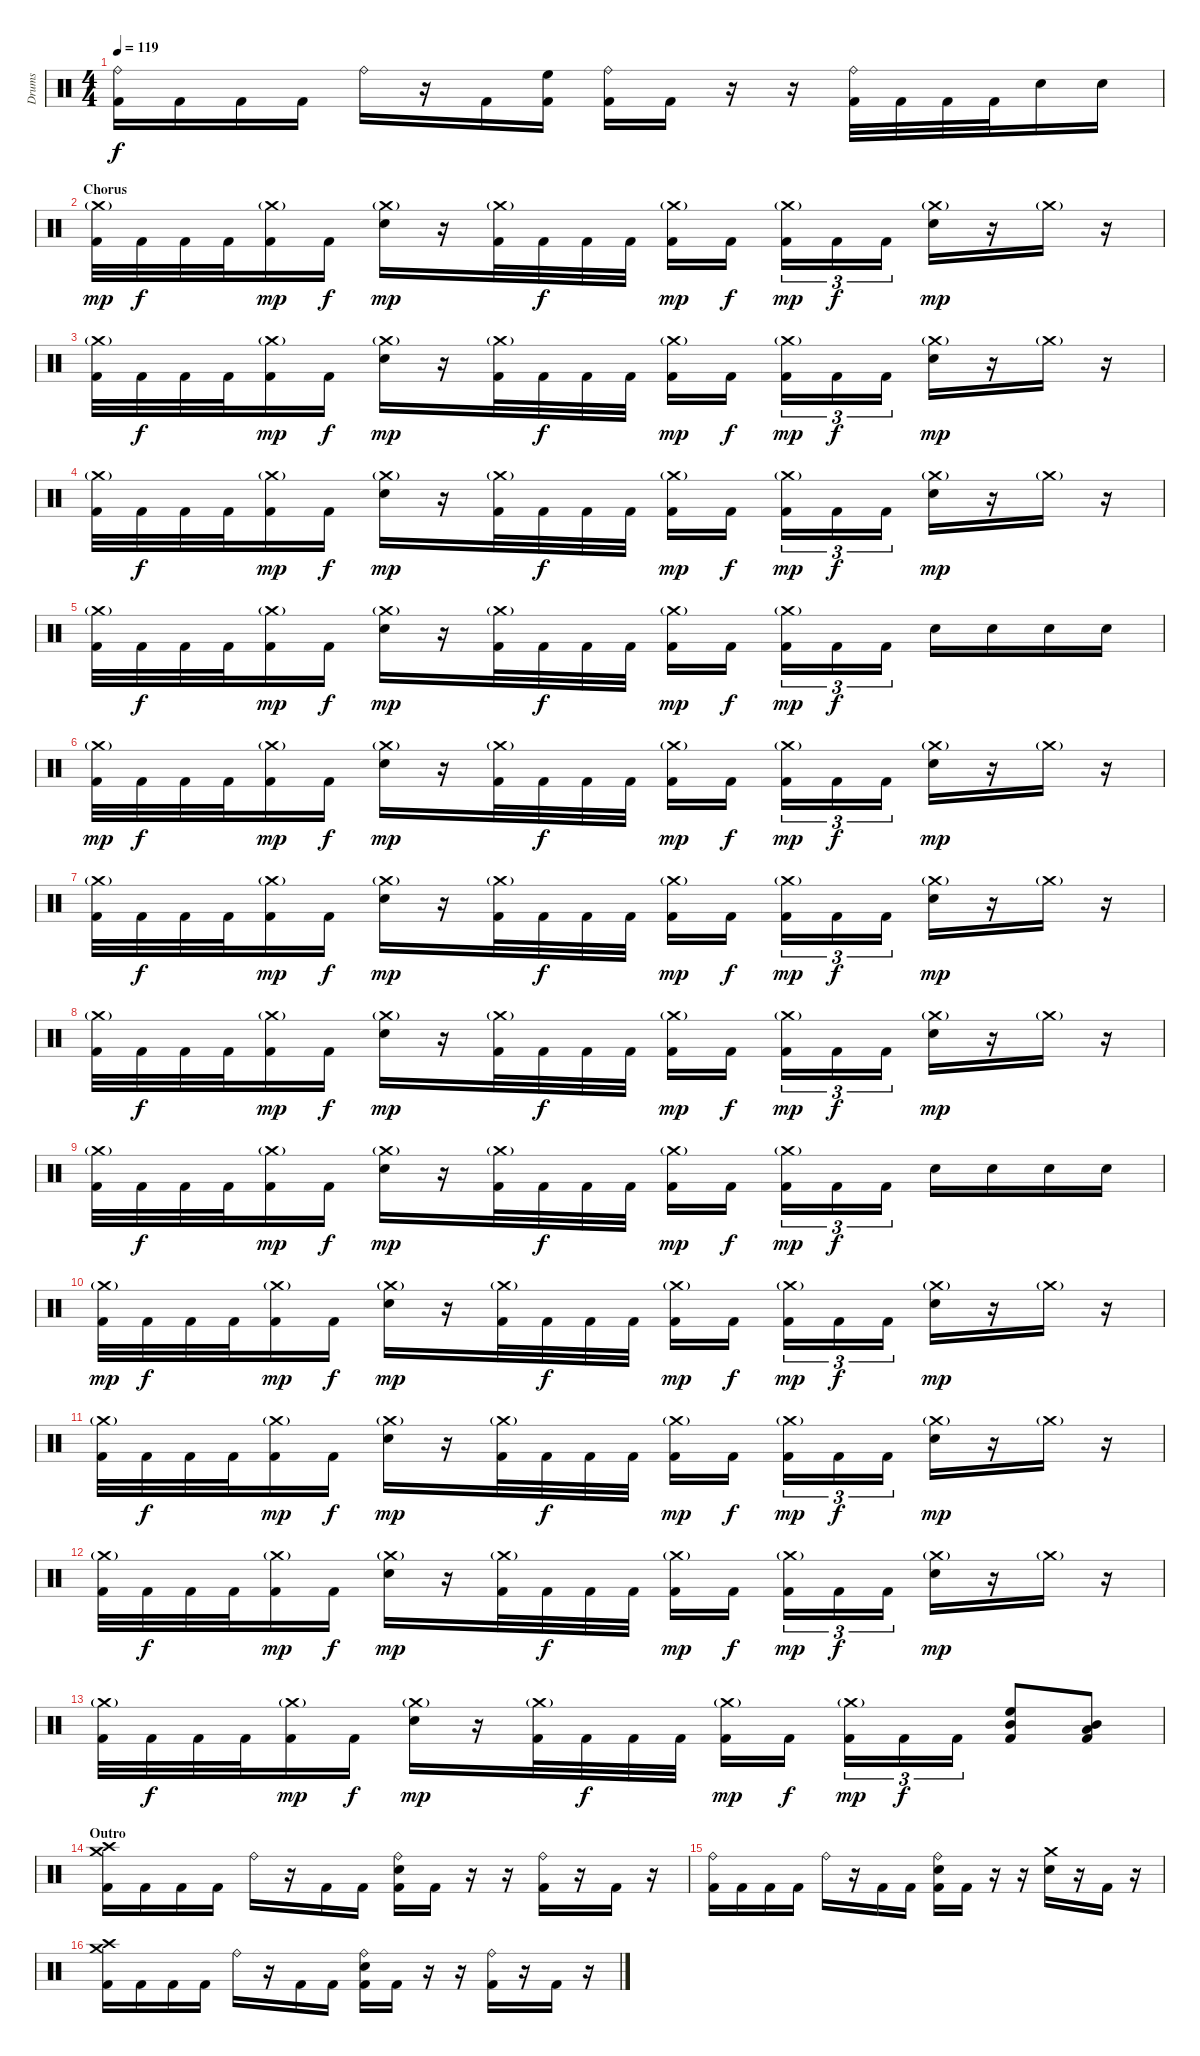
\track ("Drums" "Drums") {instrument percussion}
\staff {score}
\articulation defaults
\ts (4 4)
\tempo 119
\clef neutral
\ks c
("Ride (bell)" "Kick (hit) 2").16{dy f} "Kick (hit) 2".16 "Kick (hit) 2".16 "Kick (hit) 2".16 "Ride (bell)".16 r.16 "Kick (hit) 2".16 ("High Floor Tom (hit)" "Kick (hit) 2").16 ("Ride (bell)" "Kick (hit) 2").16 "Kick (hit) 2".16 r.16 r.16 ("Ride (bell)" "Kick (hit) 2").32 "Kick (hit) 2".32 "Kick (hit) 2".32 "Kick (hit) 2".32 "Electric Snare (hit)".16 "Electric Snare (hit)".16 |
\section ("" "Chorus")
("Crash medium (hit)"{g} "Kick (hit) 2").32{dy mp} "Kick (hit) 2".32{dy f} "Kick (hit) 2".32 "Kick (hit) 2".32 ("Crash medium (hit)"{g} "Kick (hit) 2").16{dy mp} "Kick (hit) 2".16{dy f} ("Crash medium (hit)"{g} "Electric Snare (hit)").16{dy mp} r.16 ("Crash medium (hit)"{g} "Kick (hit) 2").32 "Kick (hit) 2".32{dy f} "Kick (hit) 2".32 "Kick (hit) 2".32 ("Crash medium (hit)"{g} "Kick (hit) 2").16{dy mp} "Kick (hit) 2".16{dy f} ("Crash medium (hit)"{g} "Kick (hit) 2").16{tu (3 2) dy mp} "Kick (hit) 2".16{tu (3 2) dy f} "Kick (hit) 2".16{tu (3 2)} ("Crash medium (hit)"{g} "Electric Snare (hit)").16{dy mp} r.16 "Crash medium (hit)"{g}.16 r.16 |
("Crash medium (hit)"{g} "Kick (hit) 2").32 "Kick (hit) 2".32{dy f} "Kick (hit) 2".32 "Kick (hit) 2".32 ("Crash medium (hit)"{g} "Kick (hit) 2").16{dy mp} "Kick (hit) 2".16{dy f} ("Crash medium (hit)"{g} "Electric Snare (hit)").16{dy mp} r.16 ("Crash medium (hit)"{g} "Kick (hit) 2").32 "Kick (hit) 2".32{dy f} "Kick (hit) 2".32 "Kick (hit) 2".32 ("Crash medium (hit)"{g} "Kick (hit) 2").16{dy mp} "Kick (hit) 2".16{dy f} ("Crash medium (hit)"{g} "Kick (hit) 2").16{tu (3 2) dy mp} "Kick (hit) 2".16{tu (3 2) dy f} "Kick (hit) 2".16{tu (3 2)} ("Crash medium (hit)"{g} "Electric Snare (hit)").16{dy mp} r.16 "Crash medium (hit)"{g}.16 r.16 |
("Crash medium (hit)"{g} "Kick (hit) 2").32 "Kick (hit) 2".32{dy f} "Kick (hit) 2".32 "Kick (hit) 2".32 ("Crash medium (hit)"{g} "Kick (hit) 2").16{dy mp} "Kick (hit) 2".16{dy f} ("Crash medium (hit)"{g} "Electric Snare (hit)").16{dy mp} r.16 ("Crash medium (hit)"{g} "Kick (hit) 2").32 "Kick (hit) 2".32{dy f} "Kick (hit) 2".32 "Kick (hit) 2".32 ("Crash medium (hit)"{g} "Kick (hit) 2").16{dy mp} "Kick (hit) 2".16{dy f} ("Crash medium (hit)"{g} "Kick (hit) 2").16{tu (3 2) dy mp} "Kick (hit) 2".16{tu (3 2) dy f} "Kick (hit) 2".16{tu (3 2)} ("Crash medium (hit)"{g} "Electric Snare (hit)").16{dy mp} r.16 "Crash medium (hit)"{g}.16 r.16 |
("Crash medium (hit)"{g} "Kick (hit) 2").32 "Kick (hit) 2".32{dy f} "Kick (hit) 2".32 "Kick (hit) 2".32 ("Crash medium (hit)"{g} "Kick (hit) 2").16{dy mp} "Kick (hit) 2".16{dy f} ("Crash medium (hit)"{g} "Electric Snare (hit)").16{dy mp} r.16 ("Crash medium (hit)"{g} "Kick (hit) 2").32 "Kick (hit) 2".32{dy f} "Kick (hit) 2".32 "Kick (hit) 2".32 ("Crash medium (hit)"{g} "Kick (hit) 2").16{dy mp} "Kick (hit) 2".16{dy f} ("Crash medium (hit)"{g} "Kick (hit) 2").16{tu (3 2) dy mp} "Kick (hit) 2".16{tu (3 2) dy f} "Kick (hit) 2".16{tu (3 2)} "Electric Snare (hit)".16 "Electric Snare (hit)".16 "Electric Snare (hit)".16 "Electric Snare (hit)".16 |
("Crash medium (hit)"{g} "Kick (hit) 2").32{dy mp} "Kick (hit) 2".32{dy f} "Kick (hit) 2".32 "Kick (hit) 2".32 ("Crash medium (hit)"{g} "Kick (hit) 2").16{dy mp} "Kick (hit) 2".16{dy f} ("Crash medium (hit)"{g} "Electric Snare (hit)").16{dy mp} r.16 ("Crash medium (hit)"{g} "Kick (hit) 2").32 "Kick (hit) 2".32{dy f} "Kick (hit) 2".32 "Kick (hit) 2".32 ("Crash medium (hit)"{g} "Kick (hit) 2").16{dy mp} "Kick (hit) 2".16{dy f} ("Crash medium (hit)"{g} "Kick (hit) 2").16{tu (3 2) dy mp} "Kick (hit) 2".16{tu (3 2) dy f} "Kick (hit) 2".16{tu (3 2)} ("Crash medium (hit)"{g} "Electric Snare (hit)").16{dy mp} r.16 "Crash medium (hit)"{g}.16 r.16 |
("Crash medium (hit)"{g} "Kick (hit) 2").32 "Kick (hit) 2".32{dy f} "Kick (hit) 2".32 "Kick (hit) 2".32 ("Crash medium (hit)"{g} "Kick (hit) 2").16{dy mp} "Kick (hit) 2".16{dy f} ("Crash medium (hit)"{g} "Electric Snare (hit)").16{dy mp} r.16 ("Crash medium (hit)"{g} "Kick (hit) 2").32 "Kick (hit) 2".32{dy f} "Kick (hit) 2".32 "Kick (hit) 2".32 ("Crash medium (hit)"{g} "Kick (hit) 2").16{dy mp} "Kick (hit) 2".16{dy f} ("Crash medium (hit)"{g} "Kick (hit) 2").16{tu (3 2) dy mp} "Kick (hit) 2".16{tu (3 2) dy f} "Kick (hit) 2".16{tu (3 2)} ("Crash medium (hit)"{g} "Electric Snare (hit)").16{dy mp} r.16 "Crash medium (hit)"{g}.16 r.16 |
("Crash medium (hit)"{g} "Kick (hit) 2").32 "Kick (hit) 2".32{dy f} "Kick (hit) 2".32 "Kick (hit) 2".32 ("Crash medium (hit)"{g} "Kick (hit) 2").16{dy mp} "Kick (hit) 2".16{dy f} ("Crash medium (hit)"{g} "Electric Snare (hit)").16{dy mp} r.16 ("Crash medium (hit)"{g} "Kick (hit) 2").32 "Kick (hit) 2".32{dy f} "Kick (hit) 2".32 "Kick (hit) 2".32 ("Crash medium (hit)"{g} "Kick (hit) 2").16{dy mp} "Kick (hit) 2".16{dy f} ("Crash medium (hit)"{g} "Kick (hit) 2").16{tu (3 2) dy mp} "Kick (hit) 2".16{tu (3 2) dy f} "Kick (hit) 2".16{tu (3 2)} ("Crash medium (hit)"{g} "Electric Snare (hit)").16{dy mp} r.16 "Crash medium (hit)"{g}.16 r.16 |
("Crash medium (hit)"{g} "Kick (hit) 2").32 "Kick (hit) 2".32{dy f} "Kick (hit) 2".32 "Kick (hit) 2".32 ("Crash medium (hit)"{g} "Kick (hit) 2").16{dy mp} "Kick (hit) 2".16{dy f} ("Crash medium (hit)"{g} "Electric Snare (hit)").16{dy mp} r.16 ("Crash medium (hit)"{g} "Kick (hit) 2").32 "Kick (hit) 2".32{dy f} "Kick (hit) 2".32 "Kick (hit) 2".32 ("Crash medium (hit)"{g} "Kick (hit) 2").16{dy mp} "Kick (hit) 2".16{dy f} ("Crash medium (hit)"{g} "Kick (hit) 2").16{tu (3 2) dy mp} "Kick (hit) 2".16{tu (3 2) dy f} "Kick (hit) 2".16{tu (3 2)} "Electric Snare (hit)".16 "Electric Snare (hit)".16 "Electric Snare (hit)".16 "Electric Snare (hit)".16 |
("Crash medium (hit)"{g} "Kick (hit) 2").32{dy mp} "Kick (hit) 2".32{dy f} "Kick (hit) 2".32 "Kick (hit) 2".32 ("Crash medium (hit)"{g} "Kick (hit) 2").16{dy mp} "Kick (hit) 2".16{dy f} ("Crash medium (hit)"{g} "Electric Snare (hit)").16{dy mp} r.16 ("Crash medium (hit)"{g} "Kick (hit) 2").32 "Kick (hit) 2".32{dy f} "Kick (hit) 2".32 "Kick (hit) 2".32 ("Crash medium (hit)"{g} "Kick (hit) 2").16{dy mp} "Kick (hit) 2".16{dy f} ("Crash medium (hit)"{g} "Kick (hit) 2").16{tu (3 2) dy mp} "Kick (hit) 2".16{tu (3 2) dy f} "Kick (hit) 2".16{tu (3 2)} ("Crash medium (hit)"{g} "Electric Snare (hit)").16{dy mp} r.16 "Crash medium (hit)"{g}.16 r.16 |
("Crash medium (hit)"{g} "Kick (hit) 2").32 "Kick (hit) 2".32{dy f} "Kick (hit) 2".32 "Kick (hit) 2".32 ("Crash medium (hit)"{g} "Kick (hit) 2").16{dy mp} "Kick (hit) 2".16{dy f} ("Crash medium (hit)"{g} "Electric Snare (hit)").16{dy mp} r.16 ("Crash medium (hit)"{g} "Kick (hit) 2").32 "Kick (hit) 2".32{dy f} "Kick (hit) 2".32 "Kick (hit) 2".32 ("Crash medium (hit)"{g} "Kick (hit) 2").16{dy mp} "Kick (hit) 2".16{dy f} ("Crash medium (hit)"{g} "Kick (hit) 2").16{tu (3 2) dy mp} "Kick (hit) 2".16{tu (3 2) dy f} "Kick (hit) 2".16{tu (3 2)} ("Crash medium (hit)"{g} "Electric Snare (hit)").16{dy mp} r.16 "Crash medium (hit)"{g}.16 r.16 |
("Crash medium (hit)"{g} "Kick (hit) 2").32 "Kick (hit) 2".32{dy f} "Kick (hit) 2".32 "Kick (hit) 2".32 ("Crash medium (hit)"{g} "Kick (hit) 2").16{dy mp} "Kick (hit) 2".16{dy f} ("Crash medium (hit)"{g} "Electric Snare (hit)").16{dy mp} r.16 ("Crash medium (hit)"{g} "Kick (hit) 2").32 "Kick (hit) 2".32{dy f} "Kick (hit) 2".32 "Kick (hit) 2".32 ("Crash medium (hit)"{g} "Kick (hit) 2").16{dy mp} "Kick (hit) 2".16{dy f} ("Crash medium (hit)"{g} "Kick (hit) 2").16{tu (3 2) dy mp} "Kick (hit) 2".16{tu (3 2) dy f} "Kick (hit) 2".16{tu (3 2)} ("Crash medium (hit)"{g} "Electric Snare (hit)").16{dy mp} r.16 "Crash medium (hit)"{g}.16 r.16 |
("Crash medium (hit)"{g} "Kick (hit) 2").32 "Kick (hit) 2".32{dy f} "Kick (hit) 2".32 "Kick (hit) 2".32 ("Crash medium (hit)"{g} "Kick (hit) 2").16{dy mp} "Kick (hit) 2".16{dy f} ("Crash medium (hit)"{g} "Electric Snare (hit)").16{dy mp} r.16 ("Crash medium (hit)"{g} "Kick (hit) 2").32 "Kick (hit) 2".32{dy f} "Kick (hit) 2".32 "Kick (hit) 2".32 ("Crash medium (hit)"{g} "Kick (hit) 2").16{dy mp} "Kick (hit) 2".16{dy f} ("Crash medium (hit)"{g} "Kick (hit) 2").16{tu (3 2) dy mp} "Kick (hit) 2".16{tu (3 2) dy f} "Kick (hit) 2".16{tu (3 2)} ("High Floor Tom (hit)" "Mid Tom (hit)" "Kick (hit) 2").8 ("Mid Tom (hit)" "Low Tom (hit)" "Kick (hit) 2").8 |
\section ("" "Outro")
("Crash high (hit)" "Crash medium (hit)" "Kick (hit) 2").16 "Kick (hit) 2".16 "Kick (hit) 2".16 "Kick (hit) 2".16 "Ride (bell)".16 r.16 "Kick (hit) 2".16 "Kick (hit) 2".16 ("Ride (bell)" "Electric Snare (hit)" "Kick (hit) 2").16 "Kick (hit) 2".16 r.16 r.16 ("Ride (bell)" "Kick (hit) 2").16 r.16 "Kick (hit) 2".16 r.16 |
("Ride (bell)" "Kick (hit) 2").16 "Kick (hit) 2".16 "Kick (hit) 2".16 "Kick (hit) 2".16 "Ride (bell)".16 r.16 "Kick (hit) 2".16 "Kick (hit) 2".16 ("Ride (bell)" "Electric Snare (hit)" "Kick (hit) 2").16 "Kick (hit) 2".16 r.16 r.16 ("Crash medium (hit)" "Electric Snare (hit)").16 r.16 "Kick (hit) 2".16 r.16 |
("Crash high (hit)" "Crash medium (hit)" "Kick (hit) 2").16 "Kick (hit) 2".16 "Kick (hit) 2".16 "Kick (hit) 2".16 "Ride (bell)".16 r.16 "Kick (hit) 2".16 "Kick (hit) 2".16 ("Ride (bell)" "Electric Snare (hit)" "Kick (hit) 2").16 "Kick (hit) 2".16 r.16 r.16 ("Ride (bell)" "Kick (hit) 2").16 r.16 "Kick (hit) 2".16 r.16
